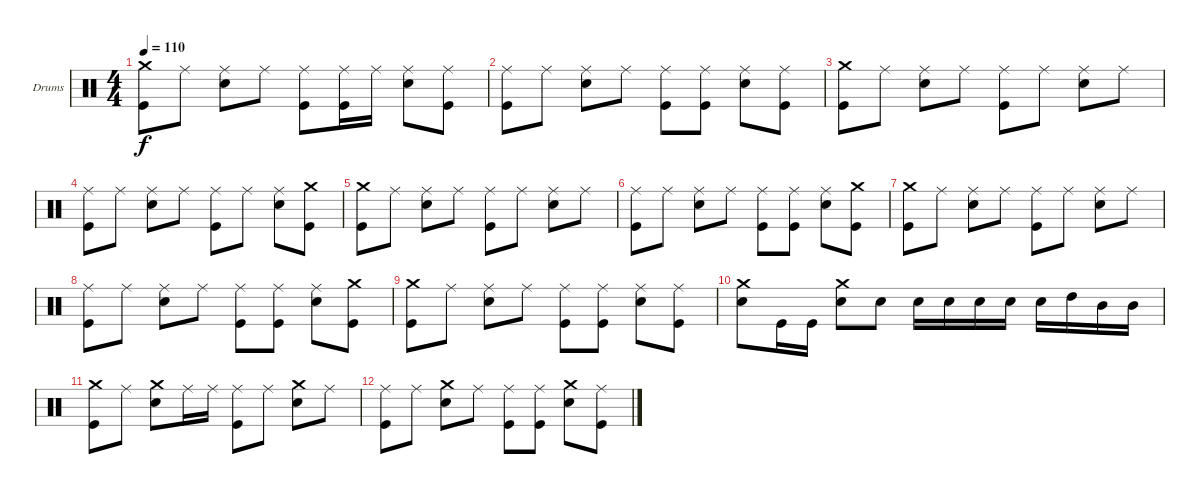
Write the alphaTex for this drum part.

\bracketExtendMode groupsimilarinstruments
\firstSystemTrackNameOrientation horizontal
\otherSystemsTrackNameOrientation horizontal
\track ("Drums" "Drums") {instrument percussion}
\staff {score}
\articulation defaults
\ts (4 4)
\tempo 110
\clef neutral
\ks c
("Crash medium (hit)" "Kick (hit)").8{dy f} "Ride (middle)".8 ("Ride (middle)" "Snare (hit) 2").8 "Ride (middle)".8 ("Ride (middle)" "Kick (hit)").8 ("Ride (middle)" "Kick (hit)").16 "Ride (middle)".16 ("Ride (middle)" "Snare (hit) 2").8 ("Ride (middle)" "Kick (hit)").8 |
("Ride (middle)" "Kick (hit)").8 "Ride (middle)".8 ("Ride (middle)" "Snare (hit) 2").8 "Ride (middle)".8 ("Ride (middle)" "Kick (hit)").8 ("Ride (middle)" "Kick (hit)").8 ("Ride (middle)" "Snare (hit) 2").8 ("Ride (middle)" "Kick (hit)").8 |
("Crash medium (hit)" "Kick (hit)").8 "Ride (middle)".8 ("Ride (middle)" "Snare (hit) 2").8 "Ride (middle)".8 ("Ride (middle)" "Kick (hit)").8 "Ride (middle)".8 ("Ride (middle)" "Snare (hit) 2").8 "Ride (middle)".8 |
("Ride (middle)" "Kick (hit)").8 "Ride (middle)".8 ("Ride (middle)" "Snare (hit) 2").8 "Ride (middle)".8 ("Ride (middle)" "Kick (hit)").8 "Ride (middle)".8 ("Ride (middle)" "Snare (hit) 2").8 ("Crash medium (hit)" "Kick (hit)").8 |
("Crash medium (hit)" "Kick (hit)").8 "Ride (middle)".8 ("Ride (middle)" "Snare (hit) 2").8 "Ride (middle)".8 ("Ride (middle)" "Kick (hit)").8 "Ride (middle)".8 ("Ride (middle)" "Snare (hit) 2").8 "Ride (middle)".8 |
("Ride (middle)" "Kick (hit)").8 "Ride (middle)".8 ("Ride (middle)" "Snare (hit) 2").8 "Ride (middle)".8 ("Ride (middle)" "Kick (hit)").8 ("Ride (middle)" "Kick (hit)").8 ("Ride (middle)" "Snare (hit) 2").8 ("Crash medium (hit)" "Kick (hit)").8 |
("Crash medium (hit)" "Kick (hit)").8 "Ride (middle)".8 ("Ride (middle)" "Snare (hit) 2").8 "Ride (middle)".8 ("Ride (middle)" "Kick (hit)").8 "Ride (middle)".8 ("Ride (middle)" "Snare (hit) 2").8 "Ride (middle)".8 |
("Ride (middle)" "Kick (hit)").8 "Ride (middle)".8 ("Ride (middle)" "Snare (hit) 2").8 "Ride (middle)".8 ("Ride (middle)" "Kick (hit)").8 ("Ride (middle)" "Kick (hit)").8 ("Ride (middle)" "Snare (hit) 2").8 ("Crash medium (hit)" "Kick (hit)").8 |
("Crash medium (hit)" "Kick (hit)").8 "Ride (middle)".8 ("Ride (middle)" "Snare (hit) 2").8 "Ride (middle)".8 ("Ride (middle)" "Kick (hit)").8 ("Ride (middle)" "Kick (hit)").8 ("Ride (middle)" "Snare (hit) 2").8 ("Ride (middle)" "Kick (hit)").8 |
("Crash medium (hit)" "Snare (hit) 2").8 "Kick (hit)".16 "Kick (hit)".16 ("Crash medium (hit)" "Snare (hit) 2").8 "Snare (hit) 2".8 "Snare (hit) 2".16 "Snare (hit) 2".16 "Snare (hit) 2".16 "Snare (hit) 2".16 "Snare (hit) 2".16 "High Tom (hit)".16 "Mid Tom (hit)".16 "Mid Tom (hit)".16 |
("Crash medium (hit)" "Kick (hit)").8 "Ride (middle)".8 ("Crash medium (hit)" "Snare (hit) 2").8 "Ride (middle)".16 "Ride (middle)".16 ("Ride (middle)" "Kick (hit)").8 "Ride (middle)".8 ("Crash medium (hit)" "Snare (hit) 2").8 "Ride (middle)".8 |
("Ride (middle)" "Kick (hit)").8 "Ride (middle)".8 ("Crash medium (hit)" "Snare (hit) 2").8 "Ride (middle)".8 ("Ride (middle)" "Kick (hit)").8 ("Ride (middle)" "Kick (hit)").8 ("Crash medium (hit)" "Snare (hit) 2").8 ("Ride (middle)" "Kick (hit)").8
